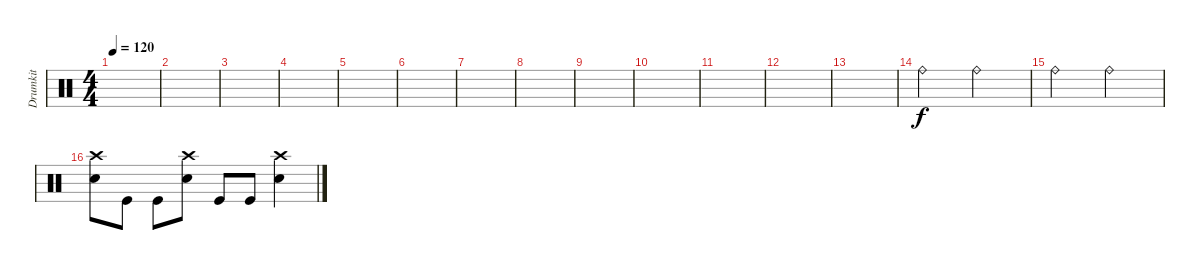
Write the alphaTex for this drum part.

\track ("Drumkit" "Drumkit") {instrument percussion}
\staff {score}
\articulation defaults
\ts (4 4)
\tempo 120
\clef neutral
\ks c
|
|
|
|
|
|
|
|
|
|
|
|
|
"Ride (bell)".2 "Ride (bell)".2 |
"Ride (bell)".2 "Ride (bell)".2 |
("Snare (hit) 2" "Crash high (hit)").8 "Kick (hit)".8 "Kick (hit)".8 ("Snare (hit) 2" "Crash high (hit)").8 "Kick (hit)".8 "Kick (hit)".8 ("Snare (hit) 2" "Crash high (hit)").4
